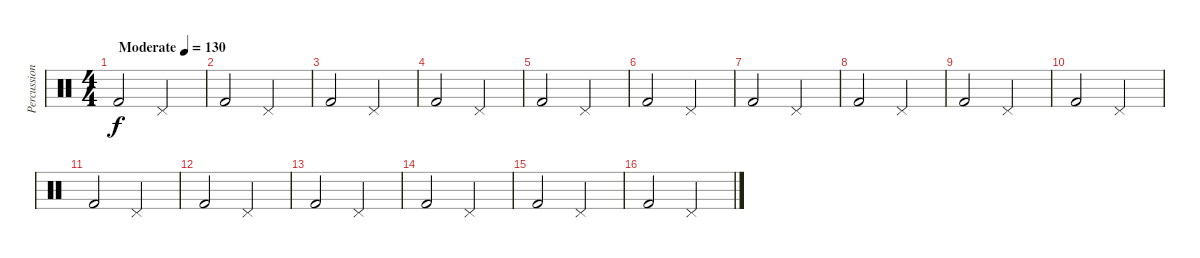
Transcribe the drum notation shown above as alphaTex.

\track ("Percussion" "Percussion") {instrument percussion}
\staff {score}
\articulation defaults
\ts (4 4)
\tempo (130 "Moderate")
\clef neutral
\ks c "Kick (hit) 2".2{dy f} "Pedal Hi-Hat (hit)".2
|
"Kick (hit) 2".2 "Pedal Hi-Hat (hit)".2 |
"Kick (hit) 2".2 "Pedal Hi-Hat (hit)".2 |
"Kick (hit) 2".2 "Pedal Hi-Hat (hit)".2 |
"Kick (hit) 2".2 "Pedal Hi-Hat (hit)".2 |
"Kick (hit) 2".2 "Pedal Hi-Hat (hit)".2 |
"Kick (hit) 2".2 "Pedal Hi-Hat (hit)".2 |
"Kick (hit) 2".2 "Pedal Hi-Hat (hit)".2 |
"Kick (hit) 2".2 "Pedal Hi-Hat (hit)".2 |
"Kick (hit) 2".2 "Pedal Hi-Hat (hit)".2 |
"Kick (hit) 2".2 "Pedal Hi-Hat (hit)".2 |
"Kick (hit) 2".2 "Pedal Hi-Hat (hit)".2 |
"Kick (hit) 2".2 "Pedal Hi-Hat (hit)".2 |
"Kick (hit) 2".2 "Pedal Hi-Hat (hit)".2 |
"Kick (hit) 2".2 "Pedal Hi-Hat (hit)".2 |
"Kick (hit) 2".2 "Pedal Hi-Hat (hit)".2
